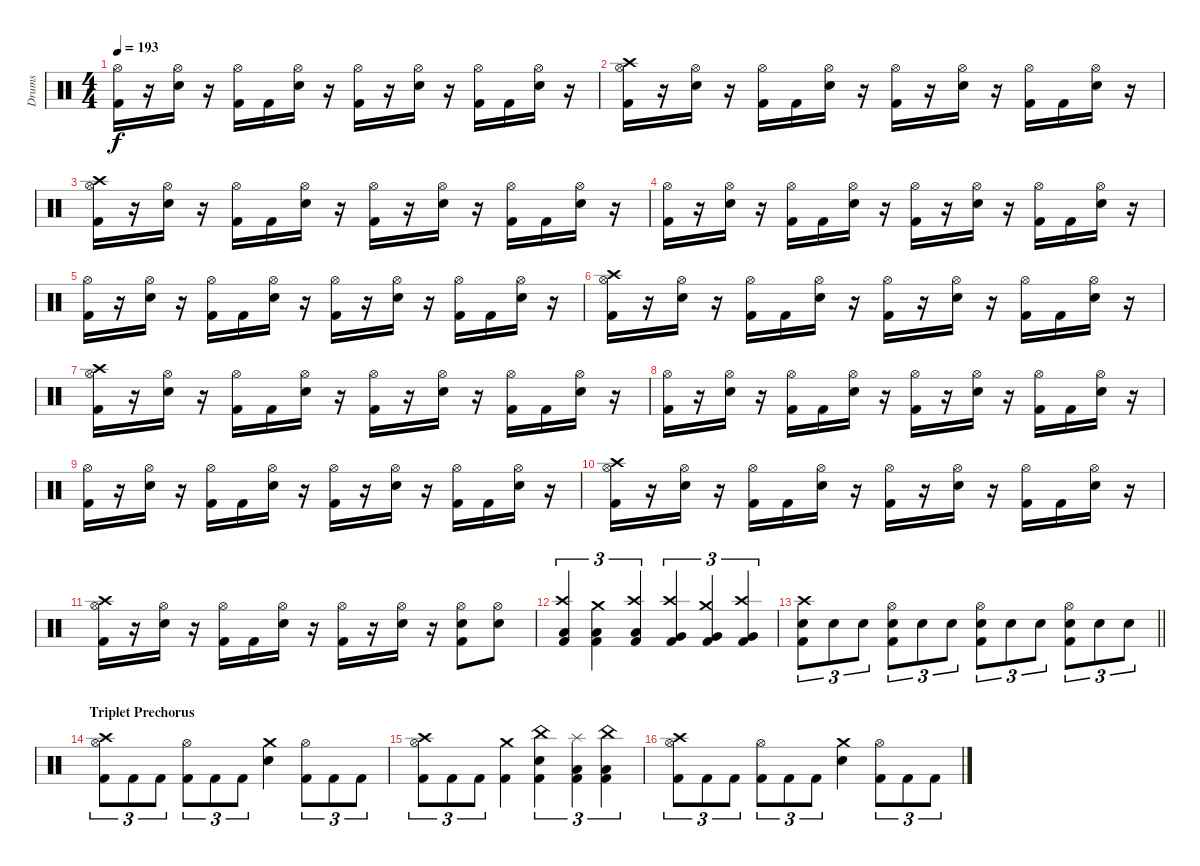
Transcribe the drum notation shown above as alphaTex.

\track ("Drums" "Drums") {instrument percussion}
\staff {score}
\articulation defaults
\ts (4 4)
\tempo 193
\clef neutral
\ks c
("Hi-Hat (open)" "Kick (hit) 2").16{dy f} r.16 ("Hi-Hat (open)" "Snare (hit) 2").16 r.16 ("Hi-Hat (open)" "Kick (hit) 2").16 "Kick (hit) 2".16 ("Hi-Hat (open)" "Snare (hit) 2").16 r.16 ("Hi-Hat (open)" "Kick (hit) 2").16 r.16 ("Hi-Hat (open)" "Snare (hit) 2").16 r.16 ("Hi-Hat (open)" "Kick (hit) 2").16 "Kick (hit) 2".16 ("Hi-Hat (open)" "Snare (hit) 2").16 r.16 |
("Crash high (hit)" "Hi-Hat (open)" "Kick (hit) 2").16 r.16 ("Hi-Hat (open)" "Snare (hit) 2").16 r.16 ("Hi-Hat (open)" "Kick (hit) 2").16 "Kick (hit) 2".16 ("Hi-Hat (open)" "Snare (hit) 2").16 r.16 ("Hi-Hat (open)" "Kick (hit) 2").16 r.16 ("Hi-Hat (open)" "Snare (hit) 2").16 r.16 ("Hi-Hat (open)" "Kick (hit) 2").16 "Kick (hit) 2".16 ("Hi-Hat (open)" "Snare (hit) 2").16 r.16 |
("Crash high (hit)" "Hi-Hat (open)" "Kick (hit) 2").16 r.16 ("Hi-Hat (open)" "Snare (hit) 2").16 r.16 ("Hi-Hat (open)" "Kick (hit) 2").16 "Kick (hit) 2".16 ("Hi-Hat (open)" "Snare (hit) 2").16 r.16 ("Hi-Hat (open)" "Kick (hit) 2").16 r.16 ("Hi-Hat (open)" "Snare (hit) 2").16 r.16 ("Hi-Hat (open)" "Kick (hit) 2").16 "Kick (hit) 2".16 ("Hi-Hat (open)" "Snare (hit) 2").16 r.16 |
("Hi-Hat (open)" "Kick (hit) 2").16 r.16 ("Hi-Hat (open)" "Snare (hit) 2").16 r.16 ("Hi-Hat (open)" "Kick (hit) 2").16 "Kick (hit) 2".16 ("Hi-Hat (open)" "Snare (hit) 2").16 r.16 ("Hi-Hat (open)" "Kick (hit) 2").16 r.16 ("Hi-Hat (open)" "Snare (hit) 2").16 r.16 ("Hi-Hat (open)" "Kick (hit) 2").16 "Kick (hit) 2".16 ("Hi-Hat (open)" "Snare (hit) 2").16 r.16 |
("Hi-Hat (open)" "Kick (hit) 2").16 r.16 ("Hi-Hat (open)" "Snare (hit) 2").16 r.16 ("Hi-Hat (open)" "Kick (hit) 2").16 "Kick (hit) 2".16 ("Hi-Hat (open)" "Snare (hit) 2").16 r.16 ("Hi-Hat (open)" "Kick (hit) 2").16 r.16 ("Hi-Hat (open)" "Snare (hit) 2").16 r.16 ("Hi-Hat (open)" "Kick (hit) 2").16 "Kick (hit) 2".16 ("Hi-Hat (open)" "Snare (hit) 2").16 r.16 |
("Crash high (hit)" "Hi-Hat (open)" "Kick (hit) 2").16 r.16 ("Hi-Hat (open)" "Snare (hit) 2").16 r.16 ("Hi-Hat (open)" "Kick (hit) 2").16 "Kick (hit) 2".16 ("Hi-Hat (open)" "Snare (hit) 2").16 r.16 ("Hi-Hat (open)" "Kick (hit) 2").16 r.16 ("Hi-Hat (open)" "Snare (hit) 2").16 r.16 ("Hi-Hat (open)" "Kick (hit) 2").16 "Kick (hit) 2".16 ("Hi-Hat (open)" "Snare (hit) 2").16 r.16 |
("Crash high (hit)" "Hi-Hat (open)" "Kick (hit) 2").16 r.16 ("Hi-Hat (open)" "Snare (hit) 2").16 r.16 ("Hi-Hat (open)" "Kick (hit) 2").16 "Kick (hit) 2".16 ("Hi-Hat (open)" "Snare (hit) 2").16 r.16 ("Hi-Hat (open)" "Kick (hit) 2").16 r.16 ("Hi-Hat (open)" "Snare (hit) 2").16 r.16 ("Hi-Hat (open)" "Kick (hit) 2").16 "Kick (hit) 2".16 ("Hi-Hat (open)" "Snare (hit) 2").16 r.16 |
("Hi-Hat (open)" "Kick (hit) 2").16 r.16 ("Hi-Hat (open)" "Snare (hit) 2").16 r.16 ("Hi-Hat (open)" "Kick (hit) 2").16 "Kick (hit) 2".16 ("Hi-Hat (open)" "Snare (hit) 2").16 r.16 ("Hi-Hat (open)" "Kick (hit) 2").16 r.16 ("Hi-Hat (open)" "Snare (hit) 2").16 r.16 ("Hi-Hat (open)" "Kick (hit) 2").16 "Kick (hit) 2".16 ("Hi-Hat (open)" "Snare (hit) 2").16 r.16 |
("Hi-Hat (open)" "Kick (hit) 2").16 r.16 ("Hi-Hat (open)" "Snare (hit) 2").16 r.16 ("Hi-Hat (open)" "Kick (hit) 2").16 "Kick (hit) 2".16 ("Hi-Hat (open)" "Snare (hit) 2").16 r.16 ("Hi-Hat (open)" "Kick (hit) 2").16 r.16 ("Hi-Hat (open)" "Snare (hit) 2").16 r.16 ("Hi-Hat (open)" "Kick (hit) 2").16 "Kick (hit) 2".16 ("Hi-Hat (open)" "Snare (hit) 2").16 r.16 |
("Crash high (hit)" "Hi-Hat (open)" "Kick (hit) 2").16 r.16 ("Hi-Hat (open)" "Snare (hit) 2").16 r.16 ("Hi-Hat (open)" "Kick (hit) 2").16 "Kick (hit) 2".16 ("Hi-Hat (open)" "Snare (hit) 2").16 r.16 ("Hi-Hat (open)" "Kick (hit) 2").16 r.16 ("Hi-Hat (open)" "Snare (hit) 2").16 r.16 ("Hi-Hat (open)" "Kick (hit) 2").16 "Kick (hit) 2".16 ("Hi-Hat (open)" "Snare (hit) 2").16 r.16 |
("Crash high (hit)" "Hi-Hat (open)" "Kick (hit) 2").16 r.16 ("Hi-Hat (open)" "Snare (hit) 2").16 r.16 ("Hi-Hat (open)" "Kick (hit) 2").16 "Kick (hit) 2".16 ("Hi-Hat (open)" "Snare (hit) 2").16 r.16 ("Hi-Hat (open)" "Kick (hit) 2").16 r.16 ("Hi-Hat (open)" "Snare (hit) 2").16 r.16 ("Hi-Hat (open)" "Snare (hit) 2" "Kick (hit) 2").8 ("Hi-Hat (open)" "Snare (hit) 2").8 |
("Crash high (hit)" "Low Floor Tom (hit)" "Kick (hit) 2").4{tu (3 2)} ("Crash medium (hit)" "Low Floor Tom (hit)" "Kick (hit) 2").4{tu (3 2)} ("Crash high (hit)" "Low Floor Tom (hit)" "Kick (hit) 2").4{tu (3 2)} ("Crash high (hit)" "Very Low Tom (hit)" "Kick (hit) 2").4{tu (3 2)} ("Crash medium (hit)" "Very Low Tom (hit)" "Kick (hit) 2").4{tu (3 2)} ("Crash high (hit)" "Very Low Tom (hit)" "Kick (hit) 2").4{tu (3 2)} |
\barLineRight lightlight
("Crash high (hit)" "Snare (hit) 2" "Kick (hit) 2").8{tu (3 2)} "Snare (hit) 2".8{tu (3 2)} "Snare (hit) 2".8{tu (3 2)} ("Hi-Hat (open)" "Snare (hit) 2" "Kick (hit) 2").8{tu (3 2)} "Snare (hit) 2".8{tu (3 2)} "Snare (hit) 2".8{tu (3 2)} ("Hi-Hat (open)" "Snare (hit) 2" "Kick (hit) 2").8{tu (3 2)} "Snare (hit) 2".8{tu (3 2)} "Snare (hit) 2".8{tu (3 2)} ("Hi-Hat (open)" "Snare (hit) 2" "Kick (hit) 2").8{tu (3 2)} "Snare (hit) 2".8{tu (3 2)} "Snare (hit) 2".8{tu (3 2)} |
\section ("" "Triplet Prechorus")
("Crash high (hit)" "Hi-Hat (open)" "Kick (hit) 2").8{tu (3 2)} "Kick (hit) 2".8{tu (3 2)} "Kick (hit) 2".8{tu (3 2)} ("Hi-Hat (open)" "Kick (hit) 2").8{tu (3 2)} "Kick (hit) 2".8{tu (3 2)} "Kick (hit) 2".8{tu (3 2)} ("Crash medium (hit)" "Snare (hit) 2").4 ("Hi-Hat (open)" "Kick (hit) 2").8{tu (3 2)} "Kick (hit) 2".8{tu (3 2)} "Kick (hit) 2".8{tu (3 2)} |
("Crash high (hit)" "Hi-Hat (open)" "Kick (hit) 2").8{tu (3 2)} "Kick (hit) 2".8{tu (3 2)} "Kick (hit) 2".8{tu (3 2)} ("Crash medium (hit)" "Kick (hit) 2").4 ("China (hit)" "Snare (hit) 2" "Kick (hit) 2").4{tu (3 2)} ("Splash (hit)" "Low Floor Tom (hit)" "Kick (hit) 2").4{tu (3 2)} ("China (hit)" "Low Floor Tom (hit)" "Kick (hit) 2").4{tu (3 2)} |
("Crash high (hit)" "Hi-Hat (open)" "Kick (hit) 2").8{tu (3 2)} "Kick (hit) 2".8{tu (3 2)} "Kick (hit) 2".8{tu (3 2)} ("Hi-Hat (open)" "Kick (hit) 2").8{tu (3 2)} "Kick (hit) 2".8{tu (3 2)} "Kick (hit) 2".8{tu (3 2)} ("Crash medium (hit)" "Snare (hit) 2").4 ("Hi-Hat (open)" "Kick (hit) 2").8{tu (3 2)} "Kick (hit) 2".8{tu (3 2)} "Kick (hit) 2".8{tu (3 2)}
